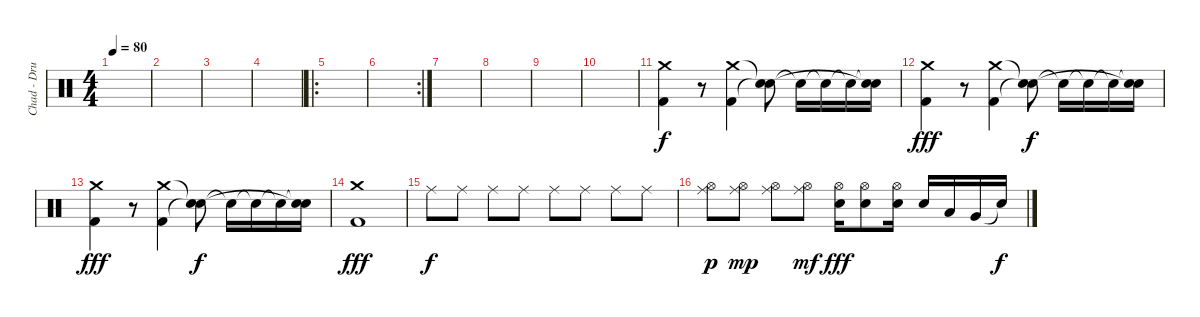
\track ("Chad - Drums" "Chad - Dru") {instrument percussion}
\staff {score}
\articulation defaults
\ts (4 4)
\tempo 80
\clef neutral
\ks c
|
|
|
|
\ro
|
\rc 2
|
|
|
|
|
("Crash medium (hit)" "Kick (hit) 2").4 r.8 ("Crash medium (hit)" "Kick (hit) 2").4 ("Snare (hit)"{t} "Snare (hit)"{t}).8{dy f} "Snare (hit)"{t}.16 "Snare (hit)"{t}.16 "Snare (hit)"{t}.16 ("Snare (hit)"{t} "Snare (hit)"{t}).16 |
("Crash medium (hit)" "Kick (hit) 2").4{dy fff} r.8 ("Crash medium (hit)" "Kick (hit) 2").4 ("Snare (hit)"{t} "Snare (hit)"{t}).8{dy f} "Snare (hit)"{t}.16 "Snare (hit)"{t}.16 "Snare (hit)"{t}.16 ("Snare (hit)"{t} "Snare (hit)"{t}).16 |
("Crash medium (hit)" "Kick (hit) 2").4{dy fff} r.8 ("Crash medium (hit)" "Kick (hit) 2").4 ("Snare (hit)"{t} "Snare (hit)"{t}).8{dy f} "Snare (hit)"{t}.16 "Snare (hit)"{t}.16 "Snare (hit)"{t}.16 ("Snare (hit)"{t} "Snare (hit)"{t}).16 |
("Crash medium (hit)" "Kick (hit) 2").1{dy fff} |
"Ride (middle)".8{dy f} "Ride (middle)".8 "Ride (middle)".8 "Ride (middle)".8 "Ride (middle)".8 "Ride (middle)".8 "Ride (middle)".8 "Ride (middle)".8 |
("Ride (middle)" "Hi-Hat (open)").8{dy p} ("Ride (middle)" "Hi-Hat (open)").8{dy mp} ("Ride (middle)" "Hi-Hat (open)").8 ("Ride (middle)" "Hi-Hat (open)").8{dy mf} ("Electric Snare (hit)" "Hi-Hat (open)").16{dy fff} ("Electric Snare (hit)" "Hi-Hat (open)").8 ("Electric Snare (hit)" "Hi-Hat (open)").16 "Electric Snare (hit)".16 "Low Tom (hit)".16 "Very Low Tom (hit)".16 "Snare (hit)"{t}.16{dy f}
